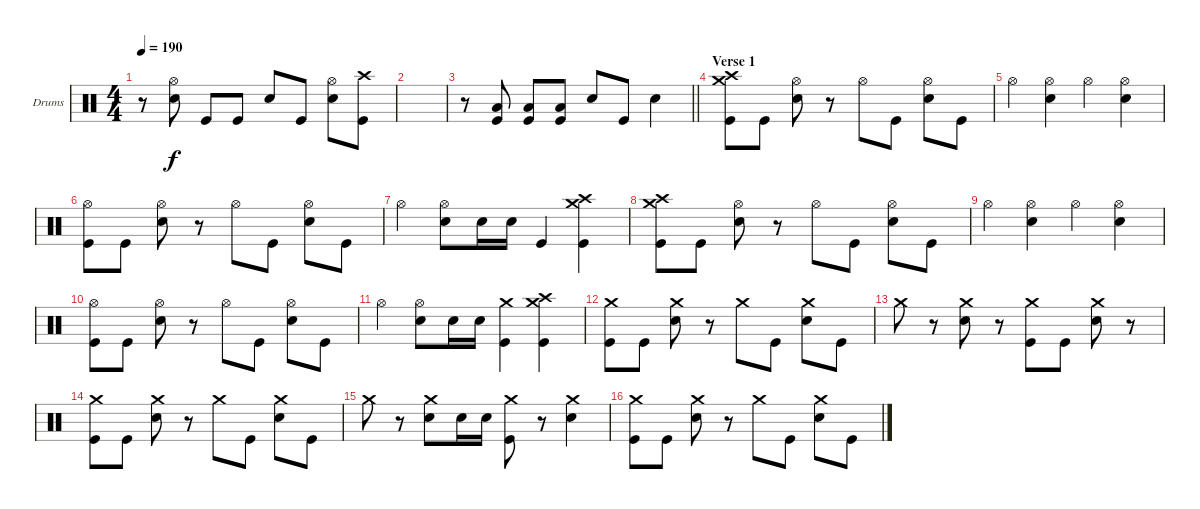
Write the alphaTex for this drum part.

\bracketExtendMode groupsimilarinstruments
\firstSystemTrackNameOrientation horizontal
\otherSystemsTrackNameOrientation horizontal
\track ("Drumkit" "Drums") {instrument percussion}
\staff {score}
\articulation defaults
\ts (4 4)
\tempo 190
\clef neutral
\scale
0.333333
\ks c
r.8{dy f} ("Snare (hit) 2" "Hi-Hat (open)").8 "Kick (hit)".8 "Kick (hit)".8 "Snare (hit) 2".8 "Kick (hit)".8 ("Snare (hit) 2" "Hi-Hat (open)").8 ("Kick (hit)" "Crash high (hit)").8 |
\scale
0.333333 |
\scale
0.333333
\barLineRight lightlight
r.8 ("Kick (hit)" "Low Tom (hit)").8 ("Kick (hit)" "Low Tom (hit)").8 ("Kick (hit)" "Low Tom (hit)").8 "Snare (hit) 2".8 "Kick (hit)".8 "Snare (hit) 2".4 |
\section ("" "Verse 1")
\scale
0.333333 ("Kick (hit)" "Crash medium (hit)" "Crash high (hit)").8 "Kick (hit)".8 ("Hi-Hat (open)" "Snare (hit) 2").8 r.8 "Hi-Hat (open)".8 "Kick (hit)".8 ("Snare (hit) 2" "Hi-Hat (open)").8 "Kick (hit)".8 |
\scale
0.333333 "Hi-Hat (open)".4 ("Hi-Hat (open)" "Snare (hit) 2").4 "Hi-Hat (open)".4 ("Hi-Hat (open)" "Snare (hit) 2").4 |
\scale
0.333333 ("Kick (hit)" "Hi-Hat (open)").8 "Kick (hit)".8 ("Hi-Hat (open)" "Snare (hit) 2").8 r.8 "Hi-Hat (open)".8 "Kick (hit)".8 ("Snare (hit) 2" "Hi-Hat (open)").8 "Kick (hit)".8 |
\scale
0.333333 "Hi-Hat (open)".4 ("Hi-Hat (open)" "Snare (hit) 2").8 "Snare (hit) 2".16 "Snare (hit) 2".16 "Kick (hit)".4 ("Crash high (hit)" "Crash medium (hit)" "Kick (hit)").4 |
("Kick (hit)" "Crash medium (hit)" "Crash high (hit)").8 "Kick (hit)".8 ("Hi-Hat (open)" "Snare (hit) 2").8 r.8 "Hi-Hat (open)".8 "Kick (hit)".8 ("Snare (hit) 2" "Hi-Hat (open)").8 "Kick (hit)".8 |
"Hi-Hat (open)".4 ("Hi-Hat (open)" "Snare (hit) 2").4 "Hi-Hat (open)".4 ("Hi-Hat (open)" "Snare (hit) 2").4 |
("Kick (hit)" "Hi-Hat (open)").8 "Kick (hit)".8 ("Hi-Hat (open)" "Snare (hit) 2").8 r.8 "Hi-Hat (open)".8 "Kick (hit)".8 ("Snare (hit) 2" "Hi-Hat (open)").8 "Kick (hit)".8 |
"Hi-Hat (open)".4 ("Hi-Hat (open)" "Snare (hit) 2").8 "Snare (hit) 2".16 "Snare (hit) 2".16 ("Kick (hit)" "Crash medium (hit)").4 ("Crash high (hit)" "Crash medium (hit)" "Kick (hit)").4 |
\scale
0.333333 ("Kick (hit)" "Crash medium (hit)").8 "Kick (hit)".8 ("Snare (hit) 2" "Crash medium (hit)").8 r.8 "Crash medium (hit)".8 "Kick (hit)".8 ("Snare (hit) 2" "Crash medium (hit)").8 "Kick (hit)".8 |
\scale
0.333333 "Crash medium (hit)".8 r.8 ("Snare (hit) 2" "Crash medium (hit)").8 r.8 ("Crash medium (hit)" "Kick (hit)").8 "Kick (hit)".8 ("Snare (hit) 2" "Crash medium (hit)").8 r.8 |
\scale
0.333333 ("Kick (hit)" "Crash medium (hit)").8 "Kick (hit)".8 ("Snare (hit) 2" "Crash medium (hit)").8 r.8 "Crash medium (hit)".8 "Kick (hit)".8 ("Snare (hit) 2" "Crash medium (hit)").8 "Kick (hit)".8 |
"Crash medium (hit)".8 r.8 ("Snare (hit) 2" "Crash medium (hit)").8 "Snare (hit) 2".16 "Snare (hit) 2".16 ("Crash medium (hit)" "Kick (hit)").8 r.8 ("Snare (hit) 2" "Crash medium (hit)").4 |
\scale
0.333333 ("Kick (hit)" "Crash medium (hit)").8 "Kick (hit)".8 ("Snare (hit) 2" "Crash medium (hit)").8 r.8 "Crash medium (hit)".8 "Kick (hit)".8 ("Snare (hit) 2" "Crash medium (hit)").8 "Kick (hit)".8
